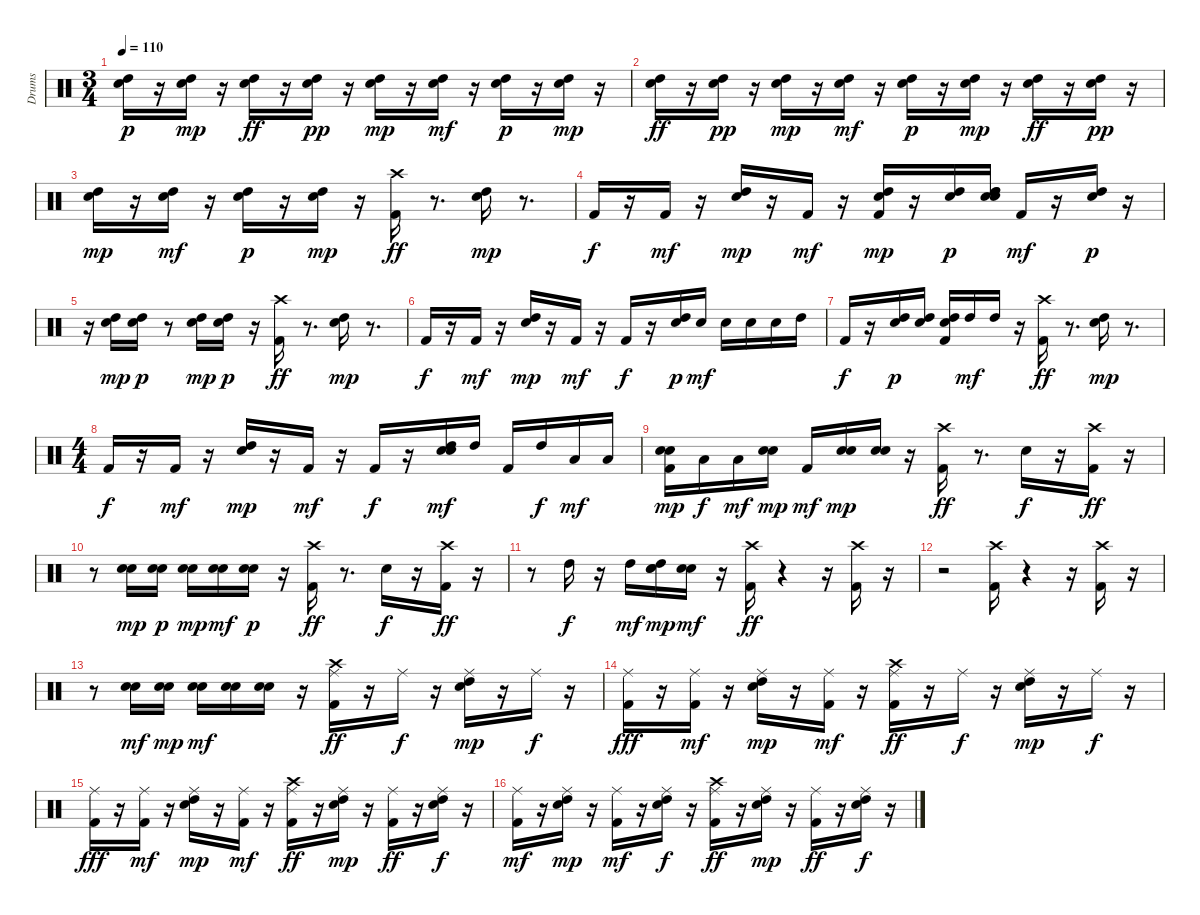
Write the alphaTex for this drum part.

\track ("Drums" "Drums") {instrument percussion}
\staff {score}
\articulation defaults
\ts (3 4)
\tempo 110
\clef neutral
\ks c
("High Tom (hit)" "Snare (hit) 2").16{dy p} r.16 ("High Tom (hit)" "Snare (hit) 2").16{dy mp} r.16 ("High Tom (hit)" "Snare (hit) 2").16{dy ff} r.16 ("Snare (hit) 2" "High Tom (hit)").16{dy pp} r.16 ("High Tom (hit)" "Snare (hit) 2").16{dy mp} r.16 ("High Tom (hit)" "Snare (hit) 2").16{dy mf} r.16 ("High Tom (hit)" "Snare (hit) 2").16{dy p} r.16 ("High Tom (hit)" "Snare (hit) 2").16{dy mp} r.16 |
("High Tom (hit)" "Snare (hit) 2").16{dy ff} r.16 ("Snare (hit) 2" "High Tom (hit)").16{dy pp} r.16 ("High Tom (hit)" "Snare (hit) 2").16{dy mp} r.16 ("High Tom (hit)" "Snare (hit) 2").16{dy mf} r.16 ("High Tom (hit)" "Snare (hit) 2").16{dy p} r.16 ("High Tom (hit)" "Snare (hit) 2").16{dy mp} r.16 ("High Tom (hit)" "Snare (hit) 2").16{dy ff} r.16 ("Snare (hit) 2" "High Tom (hit)").16{dy pp} r.16 |
("High Tom (hit)" "Snare (hit) 2").16{dy mp} r.16 ("High Tom (hit)" "Snare (hit) 2").16{dy mf} r.16 ("High Tom (hit)" "Snare (hit) 2").16{dy p} r.16 ("High Tom (hit)" "Snare (hit) 2").16{dy mp} r.16 ("Kick (hit) 2" "Crash high (hit)").16{dy ff} r.8{d} ("Snare (hit) 2" "High Tom (hit)").16{dy mp} r.8{d} |
"Kick (hit) 2".16{dy f} r.16 "Kick (hit) 2".16{dy mf} r.16 ("Snare (hit) 2" "High Tom (hit)").16{dy mp} r.16 "Kick (hit) 2".16{dy mf} r.16 ("Kick (hit) 2" "Snare (hit) 2" "High Tom (hit)").16{dy mp} r.16 ("Snare (hit) 2" "High Tom (hit)").16{dy p} ("Snare (hit) 2" "High Tom (hit)" "Snare (hit) 2" "High Tom (hit)").16 "Kick (hit) 2".16{dy mf} r.16 ("Snare (hit) 2" "High Tom (hit)").16{dy p} r.16 |
r.16 ("Snare (hit) 2" "High Tom (hit)").16{dy mp} ("Snare (hit) 2" "High Tom (hit)").16{dy p} r.8 ("Snare (hit) 2" "High Tom (hit)").16{dy mp} ("Snare (hit) 2" "High Tom (hit)").16{dy p} r.16 ("Kick (hit) 2" "Crash high (hit)").16{dy ff} r.8{d} ("Snare (hit) 2" "High Tom (hit)").16{dy mp} r.8{d} |
"Kick (hit) 2".16{dy f} r.16 "Kick (hit) 2".16{dy mf} r.16 ("Snare (hit) 2" "High Tom (hit)").16{dy mp} r.16 "Kick (hit) 2".16{dy mf} r.16 "Kick (hit) 2".16{dy f} r.16 ("Snare (hit) 2" "High Tom (hit)").16{dy p} "Snare (hit) 2".16{dy mf} "Snare (hit) 2".16 "Snare (hit) 2".16 "Snare (hit) 2".16 "High Tom (hit)".16 |
"Kick (hit) 2".16{dy f} r.16 ("Snare (hit) 2" "High Tom (hit)").16{dy p} ("Snare (hit) 2" "High Tom (hit)").16 ("Kick (hit) 2" "Snare (hit) 2" "High Tom (hit)").16 "High Tom (hit)".16{dy mf} "High Tom (hit)".16 r.16 ("Kick (hit) 2" "Crash high (hit)").16{dy ff} r.8{d} ("Snare (hit) 2" "High Tom (hit)").16{dy mp} r.8{d} |
\ts (4 4)
"Kick (hit) 2".16{dy f} r.16 "Kick (hit) 2".16{dy mf} r.16 ("Snare (hit) 2" "High Tom (hit)").16{dy mp} r.16 "Kick (hit) 2".16{dy mf} r.16 "Kick (hit) 2".16{dy f} r.16 ("High Tom (hit)" "Snare (hit) 2" "Electric Snare (hit)").16{dy mf} "High Tom (hit)".16 "Kick (hit) 2".16 "High Tom (hit)".16{dy f} "Low Tom (hit)".16{dy mf} "Low Tom (hit)".16 |
("Kick (hit) 2" "Electric Snare (hit)" "Snare (hit) 2").16{dy mp} "Low Tom (hit)".16{dy f} "Low Tom (hit)".16{dy mf} ("Snare (hit) 2" "Electric Snare (hit)").16{dy mp} "Kick (hit) 2".16{dy mf} ("Snare (hit) 2" "Electric Snare (hit)").16{dy mp} ("Snare (hit) 2" "Electric Snare (hit)").16 r.16 ("Kick (hit) 2" "Crash high (hit)").16{dy ff} r.8{d} "Snare (hit) 2".16{dy f} r.16 ("Kick (hit) 2" "Crash high (hit)").16{dy ff} r.16 |
r.8 ("Snare (hit) 2" "Electric Snare (hit)").16{dy mp} ("Snare (hit) 2" "Electric Snare (hit)").16{dy p} ("Snare (hit) 2" "Electric Snare (hit)").16{dy mp} ("Snare (hit) 2" "Electric Snare (hit)").16{dy mf} ("Snare (hit) 2" "Electric Snare (hit)").16{dy p} r.16 ("Kick (hit) 2" "Crash high (hit)").16{dy ff} r.8{d} "Snare (hit) 2".16{dy f} r.16 ("Kick (hit) 2" "Crash high (hit)").16{dy ff} r.16 |
r.8 "High Tom (hit)".16{dy f} r.16 "High Tom (hit)".16{dy mf} ("High Tom (hit)" "Snare (hit) 2" "Electric Snare (hit)").16{dy mp} ("Snare (hit) 2" "Electric Snare (hit)").16{dy mf} r.16 ("Kick (hit) 2" "Crash high (hit)").16{dy ff} r.4 r.16 ("Kick (hit) 2" "Crash high (hit)").16 r.16 |
r.2 ("Crash high (hit)" "Kick (hit) 2").16 r.4 r.16 ("Crash high (hit)" "Kick (hit) 2").16 r.16 |
r.8 ("Snare (hit) 2" "Electric Snare (hit)").16{dy mf} ("Snare (hit) 2" "Electric Snare (hit)").16{dy mp} ("Electric Snare (hit)" "Snare (hit) 2").16{dy mf} ("Electric Snare (hit)" "Snare (hit) 2").16 ("Electric Snare (hit)" "Snare (hit) 2").16 r.16 ("Ride (middle)" "Crash high (hit)" "Kick (hit) 2").16{dy ff} r.16 "Ride (middle)".16{dy f} r.16 ("Ride (middle)" "High Tom (hit)" "Snare (hit) 2").16{dy mp} r.16 "Ride (middle)".16{dy f} r.16 |
("Ride (middle)" "Kick (hit) 2").16{dy fff} r.16 ("Ride (middle)" "Kick (hit) 2").16{dy mf} r.16 ("Ride (middle)" "High Tom (hit)" "Snare (hit) 2").16{dy mp} r.16 ("Ride (middle)" "Kick (hit) 2").16{dy mf} r.16 ("Ride (middle)" "Crash high (hit)" "Kick (hit) 2").16{dy ff} r.16 "Ride (middle)".16{dy f} r.16 ("Ride (middle)" "High Tom (hit)" "Snare (hit) 2").16{dy mp} r.16 "Ride (middle)".16{dy f} r.16 |
("Ride (middle)" "Kick (hit) 2").16{dy fff} r.16 ("Ride (middle)" "Kick (hit) 2").16{dy mf} r.16 ("Ride (middle)" "High Tom (hit)" "Snare (hit) 2").16{dy mp} r.16 ("Ride (middle)" "Kick (hit) 2").16{dy mf} r.16 ("Ride (middle)" "Crash high (hit)" "Kick (hit) 2").16{dy ff} r.16 ("Ride (middle)" "Snare (hit) 2" "High Tom (hit)").16{dy mp} r.16 ("Ride (middle)" "Kick (hit) 2").16{dy ff} r.16 ("Ride (middle)" "Snare (hit) 2" "High Tom (hit)").16{dy f} r.16 |
("Ride (middle)" "Kick (hit) 2").16{dy mf} r.16 ("Ride (middle)" "Snare (hit) 2" "High Tom (hit)").16{dy mp} r.16 ("Ride (middle)" "Kick (hit) 2").16{dy mf} r.16 ("Ride (middle)" "Snare (hit) 2" "High Tom (hit)").16{dy f} r.16 ("Ride (middle)" "Crash high (hit)" "Kick (hit) 2").16{dy ff} r.16 ("Ride (middle)" "Snare (hit) 2" "High Tom (hit)").16{dy mp} r.16 ("Ride (middle)" "Kick (hit) 2").16{dy ff} r.16 ("Ride (middle)" "Snare (hit) 2" "High Tom (hit)").16{dy f} r.16
